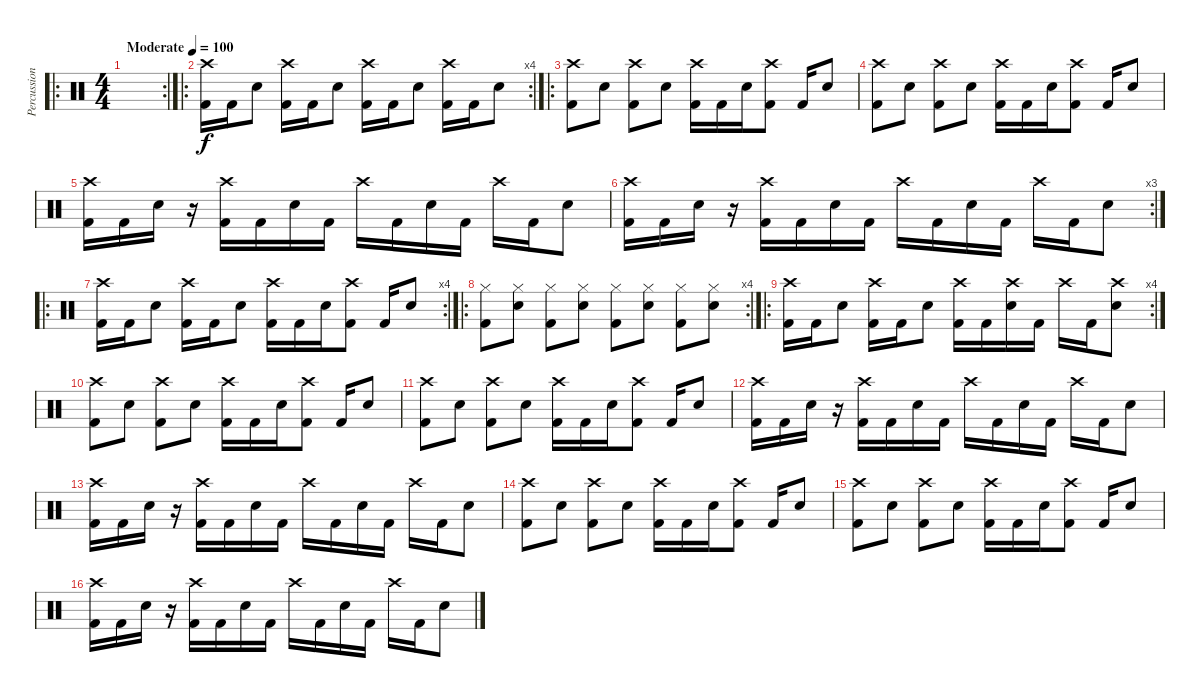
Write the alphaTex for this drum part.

\track ("Percussion" "Percussion") {instrument percussion}
\staff {score}
\articulation defaults
\ro
\rc 2
\ts (4 4)
\tempo (100 "Moderate")
\clef neutral
\ks c
|
\ro
\rc 4
("Crash high (hit)" "Kick (hit) 2").16 "Kick (hit) 2".16 "Snare (hit) 2".8 ("Crash high (hit)" "Kick (hit) 2").16 "Kick (hit) 2".16 "Snare (hit) 2".8 ("Crash high (hit)" "Kick (hit) 2").16 "Kick (hit) 2".16 "Snare (hit) 2".8 ("Crash high (hit)" "Kick (hit) 2").16 "Kick (hit) 2".16 "Snare (hit) 2".8 |
\ro
("Crash high (hit)" "Kick (hit) 2").8 "Snare (hit) 2".8 ("Crash high (hit)" "Kick (hit) 2").8 "Snare (hit) 2".8 ("Crash high (hit)" "Kick (hit) 2").16 "Kick (hit) 2".16 "Snare (hit) 2".16 ("Crash high (hit)" "Kick (hit) 2").8 "Kick (hit) 2".16 "Snare (hit) 2".8 |
("Crash high (hit)" "Kick (hit) 2").8 "Snare (hit) 2".8 ("Crash high (hit)" "Kick (hit) 2").8 "Snare (hit) 2".8 ("Crash high (hit)" "Kick (hit) 2").16 "Kick (hit) 2".16 "Snare (hit) 2".16 ("Crash high (hit)" "Kick (hit) 2").8 "Kick (hit) 2".16 "Snare (hit) 2".8 |
("Crash high (hit)" "Kick (hit) 2").16 "Kick (hit) 2".16 "Snare (hit) 2".16 r.16 ("Crash high (hit)" "Kick (hit) 2").16 "Kick (hit) 2".16 "Snare (hit) 2".16 "Kick (hit) 2".16 "Crash high (hit)".16 "Kick (hit) 2".16 "Snare (hit) 2".16 "Kick (hit) 2".16 "Crash high (hit)".16 "Kick (hit) 2".16 "Snare (hit) 2".8 |
\rc 3
("Crash high (hit)" "Kick (hit) 2").16 "Kick (hit) 2".16 "Snare (hit) 2".16 r.16 ("Crash high (hit)" "Kick (hit) 2").16 "Kick (hit) 2".16 "Snare (hit) 2".16 "Kick (hit) 2".16 "Crash high (hit)".16 "Kick (hit) 2".16 "Snare (hit) 2".16 "Kick (hit) 2".16 "Crash high (hit)".16 "Kick (hit) 2".16 "Snare (hit) 2".8 |
\ro
\rc 4
("Crash high (hit)" "Kick (hit) 2").16 "Kick (hit) 2".16 "Snare (hit) 2".8 ("Crash high (hit)" "Kick (hit) 2").16 "Kick (hit) 2".16 "Snare (hit) 2".8 ("Crash high (hit)" "Kick (hit) 2").16 "Kick (hit) 2".16 "Snare (hit) 2".16 ("Crash high (hit)" "Kick (hit) 2").8 "Kick (hit) 2".16 "Snare (hit) 2".8 |
\ro
\rc 4
("Hi-Hat (closed)" "Kick (hit) 2").8 ("Hi-Hat (closed)" "Snare (hit) 2").8 ("Hi-Hat (closed)" "Kick (hit) 2").8 ("Hi-Hat (closed)" "Snare (hit) 2").8 ("Hi-Hat (closed)" "Kick (hit) 2").8 ("Hi-Hat (closed)" "Snare (hit) 2").8 ("Hi-Hat (closed)" "Kick (hit) 2").8 ("Hi-Hat (closed)" "Snare (hit) 2").8 |
\ro
\rc 4
("Crash high (hit)" "Kick (hit) 2").16 "Kick (hit) 2".16 "Snare (hit) 2".8 ("Crash high (hit)" "Kick (hit) 2").16 "Kick (hit) 2".16 "Snare (hit) 2".8 ("Crash high (hit)" "Kick (hit) 2").16 "Kick (hit) 2".16 ("Crash high (hit)" "Snare (hit) 2").16 "Kick (hit) 2".16 "Crash high (hit)".16 "Kick (hit) 2".16 ("Crash high (hit)" "Snare (hit) 2").8 |
("Crash high (hit)" "Kick (hit) 2").8 "Snare (hit) 2".8 ("Crash high (hit)" "Kick (hit) 2").8 "Snare (hit) 2".8 ("Crash high (hit)" "Kick (hit) 2").16 "Kick (hit) 2".16 "Snare (hit) 2".16 ("Crash high (hit)" "Kick (hit) 2").8 "Kick (hit) 2".16 "Snare (hit) 2".8 |
("Crash high (hit)" "Kick (hit) 2").8 "Snare (hit) 2".8 ("Crash high (hit)" "Kick (hit) 2").8 "Snare (hit) 2".8 ("Crash high (hit)" "Kick (hit) 2").16 "Kick (hit) 2".16 "Snare (hit) 2".16 ("Crash high (hit)" "Kick (hit) 2").8 "Kick (hit) 2".16 "Snare (hit) 2".8 |
("Crash high (hit)" "Kick (hit) 2").16 "Kick (hit) 2".16 "Snare (hit) 2".16 r.16 ("Crash high (hit)" "Kick (hit) 2").16 "Kick (hit) 2".16 "Snare (hit) 2".16 "Kick (hit) 2".16 "Crash high (hit)".16 "Kick (hit) 2".16 "Snare (hit) 2".16 "Kick (hit) 2".16 "Crash high (hit)".16 "Kick (hit) 2".16 "Snare (hit) 2".8 |
("Crash high (hit)" "Kick (hit) 2").16 "Kick (hit) 2".16 "Snare (hit) 2".16 r.16 ("Crash high (hit)" "Kick (hit) 2").16 "Kick (hit) 2".16 "Snare (hit) 2".16 "Kick (hit) 2".16 "Crash high (hit)".16 "Kick (hit) 2".16 "Snare (hit) 2".16 "Kick (hit) 2".16 "Crash high (hit)".16 "Kick (hit) 2".16 "Snare (hit) 2".8 |
("Crash high (hit)" "Kick (hit) 2").8 "Snare (hit) 2".8 ("Crash high (hit)" "Kick (hit) 2").8 "Snare (hit) 2".8 ("Crash high (hit)" "Kick (hit) 2").16 "Kick (hit) 2".16 "Snare (hit) 2".16 ("Crash high (hit)" "Kick (hit) 2").8 "Kick (hit) 2".16 "Snare (hit) 2".8 |
("Crash high (hit)" "Kick (hit) 2").8 "Snare (hit) 2".8 ("Crash high (hit)" "Kick (hit) 2").8 "Snare (hit) 2".8 ("Crash high (hit)" "Kick (hit) 2").16 "Kick (hit) 2".16 "Snare (hit) 2".16 ("Crash high (hit)" "Kick (hit) 2").8 "Kick (hit) 2".16 "Snare (hit) 2".8 |
("Crash high (hit)" "Kick (hit) 2").16 "Kick (hit) 2".16 "Snare (hit) 2".16 r.16 ("Crash high (hit)" "Kick (hit) 2").16 "Kick (hit) 2".16 "Snare (hit) 2".16 "Kick (hit) 2".16 "Crash high (hit)".16 "Kick (hit) 2".16 "Snare (hit) 2".16 "Kick (hit) 2".16 "Crash high (hit)".16 "Kick (hit) 2".16 "Snare (hit) 2".8
